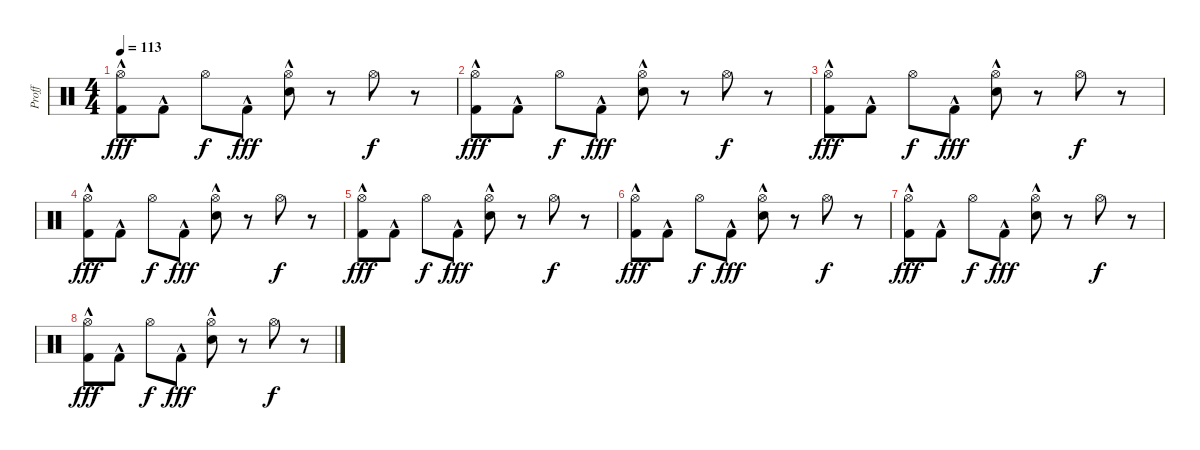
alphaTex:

\track ("Proff" "Proff") {instrument percussion}
\staff {score}
\articulation defaults
\ts (4 4)
\tempo 113
\clef neutral
\ks c
("Hi-Hat (open)" "Kick (hit) 2"{hac}).8{dy fff} "Kick (hit) 2"{hac}.8 "Hi-Hat (open)".8{dy f} "Kick (hit) 2"{hac}.8{dy fff} ("Hi-Hat (open)" "Electric Snare (hit)"{hac}).8 r.8 "Hi-Hat (open)".8{dy f} r.8 |
("Hi-Hat (open)" "Kick (hit) 2"{hac}).8{dy fff} "Kick (hit) 2"{hac}.8 "Hi-Hat (open)".8{dy f} "Kick (hit) 2"{hac}.8{dy fff} ("Hi-Hat (open)" "Electric Snare (hit)"{hac}).8 r.8 "Hi-Hat (open)".8{dy f} r.8 |
("Hi-Hat (open)" "Kick (hit) 2"{hac}).8{dy fff} "Kick (hit) 2"{hac}.8 "Hi-Hat (open)".8{dy f} "Kick (hit) 2"{hac}.8{dy fff} ("Hi-Hat (open)" "Electric Snare (hit)"{hac}).8 r.8 "Hi-Hat (open)".8{dy f} r.8 |
("Hi-Hat (open)" "Kick (hit) 2"{hac}).8{dy fff} "Kick (hit) 2"{hac}.8 "Hi-Hat (open)".8{dy f} "Kick (hit) 2"{hac}.8{dy fff} ("Hi-Hat (open)" "Electric Snare (hit)"{hac}).8 r.8 "Hi-Hat (open)".8{dy f} r.8 |
("Hi-Hat (open)" "Kick (hit) 2"{hac}).8{dy fff} "Kick (hit) 2"{hac}.8 "Hi-Hat (open)".8{dy f} "Kick (hit) 2"{hac}.8{dy fff} ("Hi-Hat (open)" "Electric Snare (hit)"{hac}).8 r.8 "Hi-Hat (open)".8{dy f} r.8 |
("Hi-Hat (open)" "Kick (hit) 2"{hac}).8{dy fff} "Kick (hit) 2"{hac}.8 "Hi-Hat (open)".8{dy f} "Kick (hit) 2"{hac}.8{dy fff} ("Hi-Hat (open)" "Electric Snare (hit)"{hac}).8 r.8 "Hi-Hat (open)".8{dy f} r.8 |
("Hi-Hat (open)" "Kick (hit) 2"{hac}).8{dy fff} "Kick (hit) 2"{hac}.8 "Hi-Hat (open)".8{dy f} "Kick (hit) 2"{hac}.8{dy fff} ("Hi-Hat (open)" "Electric Snare (hit)"{hac}).8 r.8 "Hi-Hat (open)".8{dy f} r.8 |
("Hi-Hat (open)" "Kick (hit) 2"{hac}).8{dy fff} "Kick (hit) 2"{hac}.8 "Hi-Hat (open)".8{dy f} "Kick (hit) 2"{hac}.8{dy fff} ("Hi-Hat (open)" "Electric Snare (hit)"{hac}).8 r.8 "Hi-Hat (open)".8{dy f} r.8
